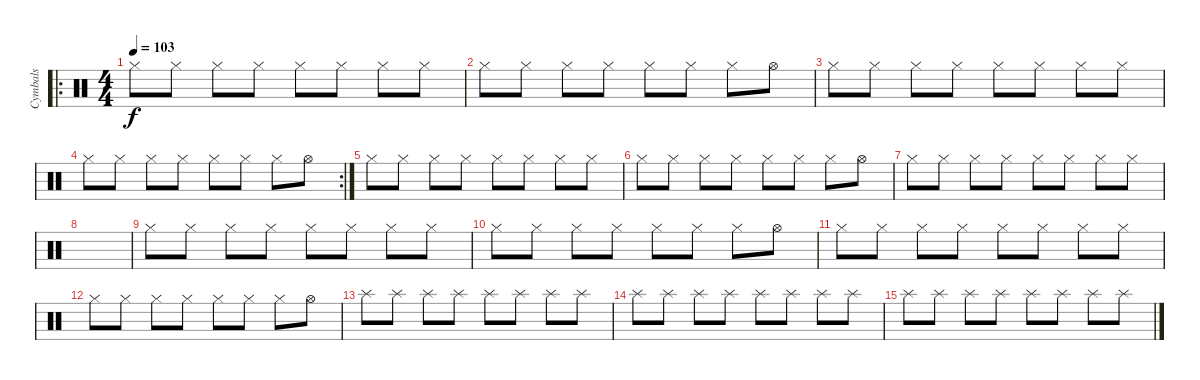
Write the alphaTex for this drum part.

\track ("Cymbals" "Cymbals") {instrument percussion}
\staff {score}
\articulation defaults
\ro
\ts (4 4)
\tempo 103
\clef neutral
\ks c "Hi-Hat (closed)".8{dy f} "Hi-Hat (closed)".8 "Hi-Hat (closed)".8 "Hi-Hat (closed)".8 "Hi-Hat (closed)".8 "Hi-Hat (closed)".8 "Hi-Hat (closed)".8 "Hi-Hat (closed)".8
|
"Hi-Hat (closed)".8 "Hi-Hat (closed)".8 "Hi-Hat (closed)".8 "Hi-Hat (closed)".8 "Hi-Hat (closed)".8 "Hi-Hat (closed)".8 "Hi-Hat (closed)".8 "Hi-Hat (open)".8 |
"Hi-Hat (closed)".8 "Hi-Hat (closed)".8 "Hi-Hat (closed)".8 "Hi-Hat (closed)".8 "Hi-Hat (closed)".8 "Hi-Hat (closed)".8 "Hi-Hat (closed)".8 "Hi-Hat (closed)".8 |
\rc 2 "Hi-Hat (closed)".8 "Hi-Hat (closed)".8 "Hi-Hat (closed)".8 "Hi-Hat (closed)".8 "Hi-Hat (closed)".8 "Hi-Hat (closed)".8 "Hi-Hat (closed)".8 "Hi-Hat (open)".8
|
"Hi-Hat (closed)".8 "Hi-Hat (closed)".8 "Hi-Hat (closed)".8 "Hi-Hat (closed)".8 "Hi-Hat (closed)".8 "Hi-Hat (closed)".8 "Hi-Hat (closed)".8 "Hi-Hat (closed)".8 |
"Hi-Hat (closed)".8 "Hi-Hat (closed)".8 "Hi-Hat (closed)".8 "Hi-Hat (closed)".8 "Hi-Hat (closed)".8 "Hi-Hat (closed)".8 "Hi-Hat (closed)".8 "Hi-Hat (open)".8 |
"Hi-Hat (closed)".8 "Hi-Hat (closed)".8 "Hi-Hat (closed)".8 "Hi-Hat (closed)".8 "Hi-Hat (closed)".8 "Hi-Hat (closed)".8 "Hi-Hat (closed)".8 "Hi-Hat (closed)".8 |
|
"Hi-Hat (closed)".8 "Hi-Hat (closed)".8 "Hi-Hat (closed)".8 "Hi-Hat (closed)".8 "Hi-Hat (closed)".8 "Hi-Hat (closed)".8 "Hi-Hat (closed)".8 "Hi-Hat (closed)".8 |
"Hi-Hat (closed)".8 "Hi-Hat (closed)".8 "Hi-Hat (closed)".8 "Hi-Hat (closed)".8 "Hi-Hat (closed)".8 "Hi-Hat (closed)".8 "Hi-Hat (closed)".8 "Hi-Hat (open)".8 |
"Hi-Hat (closed)".8 "Hi-Hat (closed)".8 "Hi-Hat (closed)".8 "Hi-Hat (closed)".8 "Hi-Hat (closed)".8 "Hi-Hat (closed)".8 "Hi-Hat (closed)".8 "Hi-Hat (closed)".8 |
"Hi-Hat (closed)".8 "Hi-Hat (closed)".8 "Hi-Hat (closed)".8 "Hi-Hat (closed)".8 "Hi-Hat (closed)".8 "Hi-Hat (closed)".8 "Hi-Hat (closed)".8 "Hi-Hat (open)".8 |
"Splash (hit)".8 "Splash (hit)".8 "Splash (hit)".8 "Splash (hit)".8 "Splash (hit)".8 "Splash (hit)".8 "Splash (hit)".8 "Splash (hit)".8 |
"Splash (hit)".8 "Splash (hit)".8 "Splash (hit)".8 "Splash (hit)".8 "Splash (hit)".8 "Splash (hit)".8 "Splash (hit)".8 "Splash (hit)".8 |
"Splash (hit)".8 "Splash (hit)".8 "Splash (hit)".8 "Splash (hit)".8 "Splash (hit)".8 "Splash (hit)".8 "Splash (hit)".8 "Splash (hit)".8
